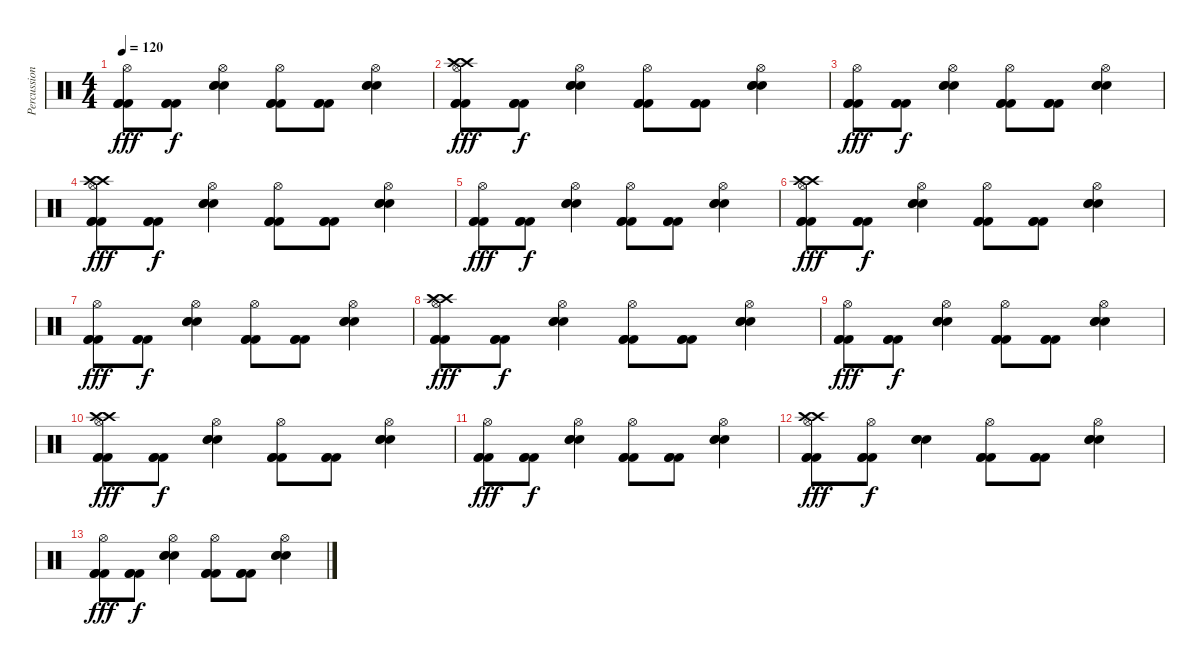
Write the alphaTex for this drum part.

\track ("Percussions" "Percussion") {instrument percussion}
\staff {score}
\articulation defaults
\ts (4 4)
\tempo 120
\clef neutral
\ks c
("Hi-Hat (open)" "Kick (hit) 2" "Kick (hit) 2" "Kick (hit) 2").8{dy fff} ("Kick (hit) 2" "Kick (hit) 2" "Kick (hit) 2").8{dy f} ("Hi-Hat (open)" "Snare (hit) 2" "Snare (hit) 2" "Snare (hit) 2").4 ("Hi-Hat (open)" "Kick (hit) 2" "Kick (hit) 2" "Kick (hit) 2").8 ("Kick (hit) 2" "Kick (hit) 2" "Kick (hit) 2").8 ("Hi-Hat (open)" "Snare (hit) 2" "Snare (hit) 2" "Snare (hit) 2").4 |
("Hi-Hat (open)" "Crash high (hit)" "Crash high (hit)" "Kick (hit) 2" "Kick (hit) 2" "Kick (hit) 2").8{dy fff} ("Kick (hit) 2" "Kick (hit) 2" "Kick (hit) 2").8{dy f} ("Hi-Hat (open)" "Snare (hit) 2" "Snare (hit) 2" "Snare (hit) 2").4 ("Hi-Hat (open)" "Kick (hit) 2" "Kick (hit) 2" "Kick (hit) 2").8 ("Kick (hit) 2" "Kick (hit) 2" "Kick (hit) 2").8 ("Hi-Hat (open)" "Snare (hit) 2" "Snare (hit) 2" "Snare (hit) 2").4 |
("Hi-Hat (open)" "Kick (hit) 2" "Kick (hit) 2" "Kick (hit) 2").8{dy fff} ("Kick (hit) 2" "Kick (hit) 2" "Kick (hit) 2").8{dy f} ("Hi-Hat (open)" "Snare (hit) 2" "Snare (hit) 2" "Snare (hit) 2").4 ("Hi-Hat (open)" "Kick (hit) 2" "Kick (hit) 2" "Kick (hit) 2").8 ("Kick (hit) 2" "Kick (hit) 2" "Kick (hit) 2").8 ("Hi-Hat (open)" "Snare (hit) 2" "Snare (hit) 2" "Snare (hit) 2").4 |
("Hi-Hat (open)" "Crash high (hit)" "Crash high (hit)" "Kick (hit) 2" "Kick (hit) 2" "Kick (hit) 2").8{dy fff} ("Kick (hit) 2" "Kick (hit) 2" "Kick (hit) 2").8{dy f} ("Hi-Hat (open)" "Snare (hit) 2" "Snare (hit) 2" "Snare (hit) 2").4 ("Hi-Hat (open)" "Kick (hit) 2" "Kick (hit) 2" "Kick (hit) 2").8 ("Kick (hit) 2" "Kick (hit) 2" "Kick (hit) 2").8 ("Hi-Hat (open)" "Snare (hit) 2" "Snare (hit) 2" "Snare (hit) 2").4 |
("Hi-Hat (open)" "Kick (hit) 2" "Kick (hit) 2" "Kick (hit) 2").8{dy fff} ("Kick (hit) 2" "Kick (hit) 2" "Kick (hit) 2").8{dy f} ("Hi-Hat (open)" "Snare (hit) 2" "Snare (hit) 2" "Snare (hit) 2").4 ("Hi-Hat (open)" "Kick (hit) 2" "Kick (hit) 2" "Kick (hit) 2").8 ("Kick (hit) 2" "Kick (hit) 2" "Kick (hit) 2").8 ("Hi-Hat (open)" "Snare (hit) 2" "Snare (hit) 2" "Snare (hit) 2").4 |
("Hi-Hat (open)" "Crash high (hit)" "Crash high (hit)" "Kick (hit) 2" "Kick (hit) 2" "Kick (hit) 2").8{dy fff} ("Kick (hit) 2" "Kick (hit) 2" "Kick (hit) 2").8{dy f} ("Hi-Hat (open)" "Snare (hit) 2" "Snare (hit) 2" "Snare (hit) 2").4 ("Hi-Hat (open)" "Kick (hit) 2" "Kick (hit) 2" "Kick (hit) 2").8 ("Kick (hit) 2" "Kick (hit) 2" "Kick (hit) 2").8 ("Hi-Hat (open)" "Snare (hit) 2" "Snare (hit) 2" "Snare (hit) 2").4 |
("Hi-Hat (open)" "Kick (hit) 2" "Kick (hit) 2" "Kick (hit) 2").8{dy fff} ("Kick (hit) 2" "Kick (hit) 2" "Kick (hit) 2").8{dy f} ("Hi-Hat (open)" "Snare (hit) 2" "Snare (hit) 2" "Snare (hit) 2").4 ("Hi-Hat (open)" "Kick (hit) 2" "Kick (hit) 2" "Kick (hit) 2").8 ("Kick (hit) 2" "Kick (hit) 2" "Kick (hit) 2").8 ("Hi-Hat (open)" "Snare (hit) 2" "Snare (hit) 2" "Snare (hit) 2").4 |
("Hi-Hat (open)" "Crash high (hit)" "Crash high (hit)" "Kick (hit) 2" "Kick (hit) 2" "Kick (hit) 2").8{dy fff} ("Kick (hit) 2" "Kick (hit) 2" "Kick (hit) 2").8{dy f} ("Hi-Hat (open)" "Snare (hit) 2" "Snare (hit) 2" "Snare (hit) 2").4 ("Hi-Hat (open)" "Kick (hit) 2" "Kick (hit) 2" "Kick (hit) 2").8 ("Kick (hit) 2" "Kick (hit) 2" "Kick (hit) 2").8 ("Hi-Hat (open)" "Snare (hit) 2" "Snare (hit) 2" "Snare (hit) 2").4 |
("Hi-Hat (open)" "Kick (hit) 2" "Kick (hit) 2" "Kick (hit) 2").8{dy fff} ("Kick (hit) 2" "Kick (hit) 2" "Kick (hit) 2").8{dy f} ("Hi-Hat (open)" "Snare (hit) 2" "Snare (hit) 2" "Snare (hit) 2").4 ("Hi-Hat (open)" "Kick (hit) 2" "Kick (hit) 2" "Kick (hit) 2").8 ("Kick (hit) 2" "Kick (hit) 2" "Kick (hit) 2").8 ("Hi-Hat (open)" "Snare (hit) 2" "Snare (hit) 2" "Snare (hit) 2").4 |
("Hi-Hat (open)" "Crash high (hit)" "Crash high (hit)" "Kick (hit) 2" "Kick (hit) 2" "Kick (hit) 2").8{dy fff} ("Kick (hit) 2" "Kick (hit) 2" "Kick (hit) 2").8{dy f} ("Hi-Hat (open)" "Snare (hit) 2" "Snare (hit) 2" "Snare (hit) 2").4 ("Hi-Hat (open)" "Kick (hit) 2" "Kick (hit) 2" "Kick (hit) 2").8 ("Kick (hit) 2" "Kick (hit) 2" "Kick (hit) 2").8 ("Hi-Hat (open)" "Snare (hit) 2" "Snare (hit) 2" "Snare (hit) 2").4 |
("Hi-Hat (open)" "Kick (hit) 2" "Kick (hit) 2" "Kick (hit) 2").8{dy fff} ("Kick (hit) 2" "Kick (hit) 2" "Kick (hit) 2").8{dy f} ("Hi-Hat (open)" "Snare (hit) 2" "Snare (hit) 2" "Snare (hit) 2").4 ("Hi-Hat (open)" "Kick (hit) 2" "Kick (hit) 2" "Kick (hit) 2").8 ("Kick (hit) 2" "Kick (hit) 2" "Kick (hit) 2").8 ("Hi-Hat (open)" "Snare (hit) 2" "Snare (hit) 2" "Snare (hit) 2").4 |
("Hi-Hat (open)" "Crash high (hit)" "Crash high (hit)" "Kick (hit) 2" "Kick (hit) 2" "Kick (hit) 2").8{dy fff} ("Hi-Hat (open)" "Kick (hit) 2" "Kick (hit) 2" "Kick (hit) 2").8{dy f} ("Snare (hit) 2" "Snare (hit) 2" "Snare (hit) 2").4 ("Hi-Hat (open)" "Kick (hit) 2" "Kick (hit) 2" "Kick (hit) 2").8 ("Kick (hit) 2" "Kick (hit) 2" "Kick (hit) 2").8 ("Hi-Hat (open)" "Snare (hit) 2" "Snare (hit) 2" "Snare (hit) 2").4 |
("Hi-Hat (open)" "Kick (hit) 2" "Kick (hit) 2" "Kick (hit) 2").8{dy fff} ("Kick (hit) 2" "Kick (hit) 2" "Kick (hit) 2").8{dy f} ("Hi-Hat (open)" "Snare (hit) 2" "Snare (hit) 2" "Snare (hit) 2").4 ("Hi-Hat (open)" "Kick (hit) 2" "Kick (hit) 2" "Kick (hit) 2").8 ("Kick (hit) 2" "Kick (hit) 2" "Kick (hit) 2").8 ("Hi-Hat (open)" "Snare (hit) 2" "Snare (hit) 2" "Snare (hit) 2").4
